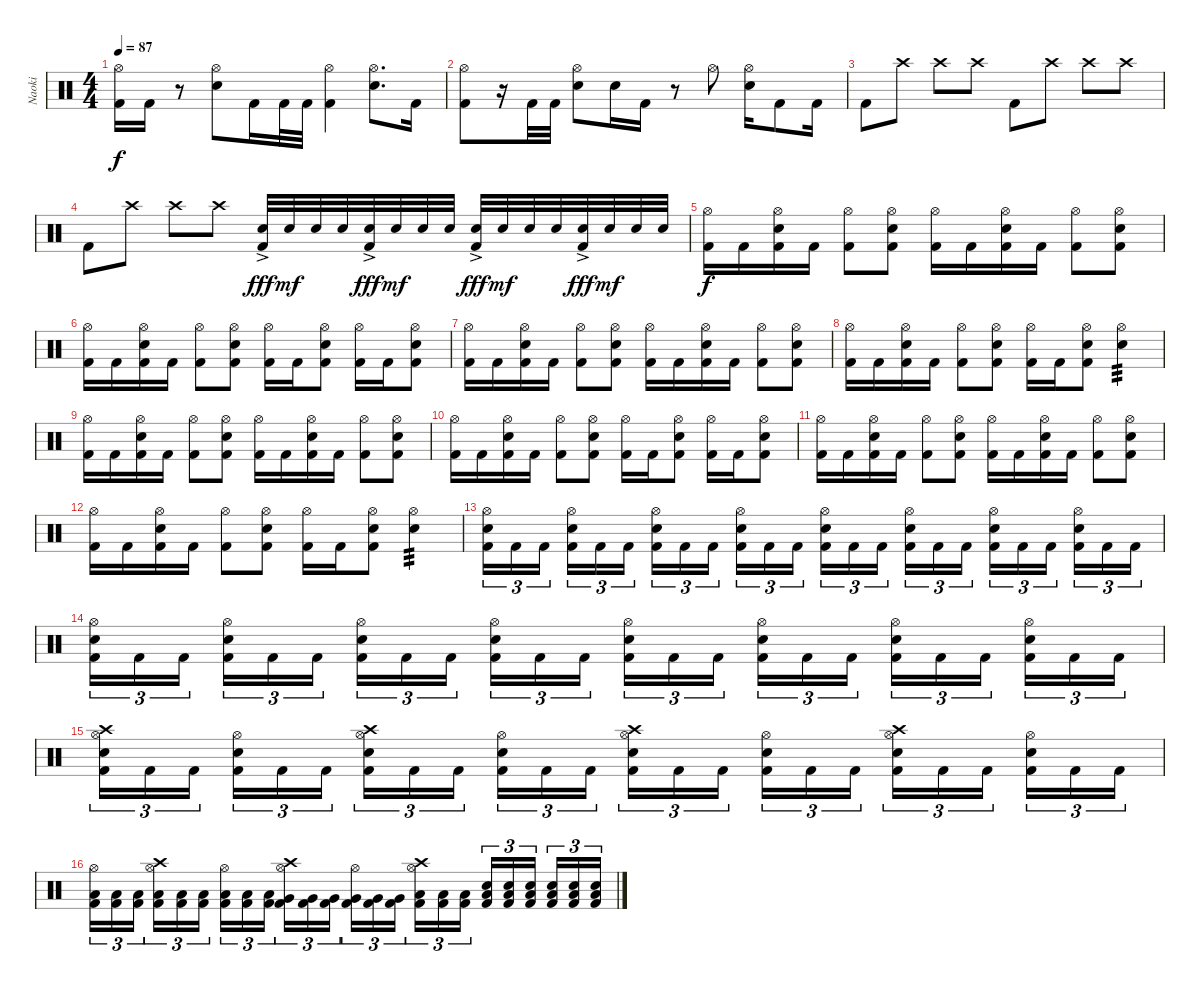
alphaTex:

\track ("Naoki" "Naoki") {instrument percussion}
\staff {score}
\articulation defaults
\ts (4 4)
\tempo 87
\clef neutral
\ks c
("Hi-Hat (open)" "Kick (hit) 2").16{dy f} "Kick (hit) 2".16 r.8 ("Hi-Hat (open)" "Electric Snare (hit)").8 "Kick (hit) 2".16 "Kick (hit) 2".32 "Kick (hit) 2".32 ("Hi-Hat (open)" "Kick (hit) 2").4 ("Hi-Hat (open)" "Electric Snare (hit)").8{d} "Kick (hit) 2".16 |
("Hi-Hat (open)" "Kick (hit) 2").8 r.16 "Kick (hit) 2".32 "Kick (hit) 2".32 ("Hi-Hat (open)" "Electric Snare (hit)").8 "Electric Snare (hit)".16 "Kick (hit) 2".16 r.8 "Hi-Hat (open)".8 ("Hi-Hat (open)" "Electric Snare (hit)").16 "Kick (hit) 2".8 "Kick (hit) 2".16 |
"Kick (hit) 2".8 "Crash high (hit)".8 "Crash high (hit)".8 "Crash high (hit)".8 "Kick (hit) 2".8 "Crash high (hit)".8 "Crash high (hit)".8 "Crash high (hit)".8 |
"Kick (hit) 2".8 "Crash high (hit)".8 "Crash high (hit)".8 "Crash high (hit)".8 ("Electric Snare (hit)"{ac} "Kick (hit) 2").32{dy fff} "Electric Snare (hit)".32{dy mf} "Electric Snare (hit)".32 "Electric Snare (hit)".32 ("Electric Snare (hit)"{ac} "Kick (hit) 2").32{dy fff} "Electric Snare (hit)".32{dy mf} "Electric Snare (hit)".32 "Electric Snare (hit)".32 ("Electric Snare (hit)"{ac} "Kick (hit) 2").32{dy fff} "Electric Snare (hit)".32{dy mf} "Electric Snare (hit)".32 "Electric Snare (hit)".32 ("Electric Snare (hit)"{ac} "Kick (hit) 2").32{dy fff} "Electric Snare (hit)".32{dy mf} "Electric Snare (hit)".32 "Electric Snare (hit)".32 |
("Hi-Hat (open)" "Kick (hit) 2").16{dy f} "Kick (hit) 2".16 ("Hi-Hat (open)" "Electric Snare (hit)" "Kick (hit) 2").16 "Kick (hit) 2".16 ("Hi-Hat (open)" "Kick (hit) 2").8 ("Hi-Hat (open)" "Electric Snare (hit)" "Kick (hit) 2").8 ("Hi-Hat (open)" "Kick (hit) 2").16 "Kick (hit) 2".16 ("Hi-Hat (open)" "Electric Snare (hit)" "Kick (hit) 2").16 "Kick (hit) 2".16 ("Hi-Hat (open)" "Kick (hit) 2").8 ("Hi-Hat (open)" "Electric Snare (hit)" "Kick (hit) 2").8 |
("Hi-Hat (open)" "Kick (hit) 2").16 "Kick (hit) 2".16 ("Hi-Hat (open)" "Electric Snare (hit)" "Kick (hit) 2").16 "Kick (hit) 2".16 ("Hi-Hat (open)" "Kick (hit) 2").8 ("Hi-Hat (open)" "Electric Snare (hit)" "Kick (hit) 2").8 ("Hi-Hat (open)" "Kick (hit) 2").16 "Kick (hit) 2".16 ("Hi-Hat (open)" "Electric Snare (hit)" "Kick (hit) 2").8 ("Hi-Hat (open)" "Kick (hit) 2").16 "Kick (hit) 2".16 ("Hi-Hat (open)" "Electric Snare (hit)" "Kick (hit) 2").8 |
("Hi-Hat (open)" "Kick (hit) 2").16 "Kick (hit) 2".16 ("Hi-Hat (open)" "Electric Snare (hit)" "Kick (hit) 2").16 "Kick (hit) 2".16 ("Hi-Hat (open)" "Kick (hit) 2").8 ("Hi-Hat (open)" "Electric Snare (hit)" "Kick (hit) 2").8 ("Hi-Hat (open)" "Kick (hit) 2").16 "Kick (hit) 2".16 ("Hi-Hat (open)" "Electric Snare (hit)" "Kick (hit) 2").16 "Kick (hit) 2".16 ("Hi-Hat (open)" "Kick (hit) 2").8 ("Hi-Hat (open)" "Electric Snare (hit)" "Kick (hit) 2").8 |
("Hi-Hat (open)" "Kick (hit) 2").16 "Kick (hit) 2".16 ("Hi-Hat (open)" "Electric Snare (hit)" "Kick (hit) 2").16 "Kick (hit) 2".16 ("Hi-Hat (open)" "Kick (hit) 2").8 ("Hi-Hat (open)" "Electric Snare (hit)" "Kick (hit) 2").8 ("Hi-Hat (open)" "Kick (hit) 2").16 "Kick (hit) 2".16 ("Hi-Hat (open)" "Electric Snare (hit)" "Kick (hit) 2").8 ("Hi-Hat (open)" "Electric Snare (hit)").4{tp 3} |
("Hi-Hat (open)" "Kick (hit) 2").16 "Kick (hit) 2".16 ("Hi-Hat (open)" "Electric Snare (hit)" "Kick (hit) 2").16 "Kick (hit) 2".16 ("Hi-Hat (open)" "Kick (hit) 2").8 ("Hi-Hat (open)" "Electric Snare (hit)" "Kick (hit) 2").8 ("Hi-Hat (open)" "Kick (hit) 2").16 "Kick (hit) 2".16 ("Hi-Hat (open)" "Electric Snare (hit)" "Kick (hit) 2").16 "Kick (hit) 2".16 ("Hi-Hat (open)" "Kick (hit) 2").8 ("Hi-Hat (open)" "Electric Snare (hit)" "Kick (hit) 2").8 |
("Hi-Hat (open)" "Kick (hit) 2").16 "Kick (hit) 2".16 ("Hi-Hat (open)" "Electric Snare (hit)" "Kick (hit) 2").16 "Kick (hit) 2".16 ("Hi-Hat (open)" "Kick (hit) 2").8 ("Hi-Hat (open)" "Electric Snare (hit)" "Kick (hit) 2").8 ("Hi-Hat (open)" "Kick (hit) 2").16 "Kick (hit) 2".16 ("Hi-Hat (open)" "Electric Snare (hit)" "Kick (hit) 2").8 ("Hi-Hat (open)" "Kick (hit) 2").16 "Kick (hit) 2".16 ("Hi-Hat (open)" "Electric Snare (hit)" "Kick (hit) 2").8 |
("Hi-Hat (open)" "Kick (hit) 2").16 "Kick (hit) 2".16 ("Hi-Hat (open)" "Electric Snare (hit)" "Kick (hit) 2").16 "Kick (hit) 2".16 ("Hi-Hat (open)" "Kick (hit) 2").8 ("Hi-Hat (open)" "Electric Snare (hit)" "Kick (hit) 2").8 ("Hi-Hat (open)" "Kick (hit) 2").16 "Kick (hit) 2".16 ("Hi-Hat (open)" "Electric Snare (hit)" "Kick (hit) 2").16 "Kick (hit) 2".16 ("Hi-Hat (open)" "Kick (hit) 2").8 ("Hi-Hat (open)" "Electric Snare (hit)" "Kick (hit) 2").8 |
("Hi-Hat (open)" "Kick (hit) 2").16 "Kick (hit) 2".16 ("Hi-Hat (open)" "Electric Snare (hit)" "Kick (hit) 2").16 "Kick (hit) 2".16 ("Hi-Hat (open)" "Kick (hit) 2").8 ("Hi-Hat (open)" "Electric Snare (hit)" "Kick (hit) 2").8 ("Hi-Hat (open)" "Kick (hit) 2").16 "Kick (hit) 2".16 ("Hi-Hat (open)" "Electric Snare (hit)" "Kick (hit) 2").8 ("Hi-Hat (open)" "Electric Snare (hit)").4{tp 3} |
("Hi-Hat (open)" "Electric Snare (hit)" "Kick (hit) 2").16{tu (3 2)} "Kick (hit) 2".16{tu (3 2)} "Kick (hit) 2".16{tu (3 2) beam splitsecondary} ("Hi-Hat (open)" "Electric Snare (hit)" "Kick (hit) 2").16{tu (3 2)} "Kick (hit) 2".16{tu (3 2)} "Kick (hit) 2".16{tu (3 2)} ("Hi-Hat (open)" "Electric Snare (hit)" "Kick (hit) 2").16{tu (3 2)} "Kick (hit) 2".16{tu (3 2)} "Kick (hit) 2".16{tu (3 2) beam splitsecondary} ("Hi-Hat (open)" "Electric Snare (hit)" "Kick (hit) 2").16{tu (3 2)} "Kick (hit) 2".16{tu (3 2)} "Kick (hit) 2".16{tu (3 2)} ("Hi-Hat (open)" "Electric Snare (hit)" "Kick (hit) 2").16{tu (3 2)} "Kick (hit) 2".16{tu (3 2)} "Kick (hit) 2".16{tu (3 2) beam splitsecondary} ("Hi-Hat (open)" "Electric Snare (hit)" "Kick (hit) 2").16{tu (3 2)} "Kick (hit) 2".16{tu (3 2)} "Kick (hit) 2".16{tu (3 2)} ("Hi-Hat (open)" "Electric Snare (hit)" "Kick (hit) 2").16{tu (3 2)} "Kick (hit) 2".16{tu (3 2)} "Kick (hit) 2".16{tu (3 2) beam splitsecondary} ("Hi-Hat (open)" "Electric Snare (hit)" "Kick (hit) 2").16{tu (3 2)} "Kick (hit) 2".16{tu (3 2)} "Kick (hit) 2".16{tu (3 2)} |
("Hi-Hat (open)" "Electric Snare (hit)" "Kick (hit) 2").16{tu (3 2)} "Kick (hit) 2".16{tu (3 2)} "Kick (hit) 2".16{tu (3 2) beam splitsecondary} ("Hi-Hat (open)" "Electric Snare (hit)" "Kick (hit) 2").16{tu (3 2)} "Kick (hit) 2".16{tu (3 2)} "Kick (hit) 2".16{tu (3 2)} ("Hi-Hat (open)" "Electric Snare (hit)" "Kick (hit) 2").16{tu (3 2)} "Kick (hit) 2".16{tu (3 2)} "Kick (hit) 2".16{tu (3 2) beam splitsecondary} ("Hi-Hat (open)" "Electric Snare (hit)" "Kick (hit) 2").16{tu (3 2)} "Kick (hit) 2".16{tu (3 2)} "Kick (hit) 2".16{tu (3 2)} ("Hi-Hat (open)" "Electric Snare (hit)" "Kick (hit) 2").16{tu (3 2)} "Kick (hit) 2".16{tu (3 2)} "Kick (hit) 2".16{tu (3 2) beam splitsecondary} ("Hi-Hat (open)" "Electric Snare (hit)" "Kick (hit) 2").16{tu (3 2)} "Kick (hit) 2".16{tu (3 2)} "Kick (hit) 2".16{tu (3 2)} ("Hi-Hat (open)" "Electric Snare (hit)" "Kick (hit) 2").16{tu (3 2)} "Kick (hit) 2".16{tu (3 2)} "Kick (hit) 2".16{tu (3 2) beam splitsecondary} ("Hi-Hat (open)" "Electric Snare (hit)" "Kick (hit) 2").16{tu (3 2)} "Kick (hit) 2".16{tu (3 2)} "Kick (hit) 2".16{tu (3 2)} |
("Crash high (hit)" "Hi-Hat (open)" "Electric Snare (hit)" "Kick (hit) 2").16{tu (3 2)} "Kick (hit) 2".16{tu (3 2)} "Kick (hit) 2".16{tu (3 2) beam splitsecondary} ("Hi-Hat (open)" "Electric Snare (hit)" "Kick (hit) 2").16{tu (3 2)} "Kick (hit) 2".16{tu (3 2)} "Kick (hit) 2".16{tu (3 2)} ("Crash high (hit)" "Hi-Hat (open)" "Electric Snare (hit)" "Kick (hit) 2").16{tu (3 2)} "Kick (hit) 2".16{tu (3 2)} "Kick (hit) 2".16{tu (3 2) beam splitsecondary} ("Hi-Hat (open)" "Electric Snare (hit)" "Kick (hit) 2").16{tu (3 2)} "Kick (hit) 2".16{tu (3 2)} "Kick (hit) 2".16{tu (3 2)} ("Crash high (hit)" "Hi-Hat (open)" "Electric Snare (hit)" "Kick (hit) 2").16{tu (3 2)} "Kick (hit) 2".16{tu (3 2)} "Kick (hit) 2".16{tu (3 2) beam splitsecondary} ("Hi-Hat (open)" "Electric Snare (hit)" "Kick (hit) 2").16{tu (3 2)} "Kick (hit) 2".16{tu (3 2)} "Kick (hit) 2".16{tu (3 2)} ("Crash high (hit)" "Hi-Hat (open)" "Electric Snare (hit)" "Kick (hit) 2").16{tu (3 2)} "Kick (hit) 2".16{tu (3 2)} "Kick (hit) 2".16{tu (3 2) beam splitsecondary} ("Hi-Hat (open)" "Electric Snare (hit)" "Kick (hit) 2").16{tu (3 2)} "Kick (hit) 2".16{tu (3 2)} "Kick (hit) 2".16{tu (3 2)} |
("Hi-Hat (open)" "Low Tom (hit)" "Kick (hit) 2").16{tu (3 2)} ("Low Tom (hit)" "Kick (hit) 2").16{tu (3 2)} ("Low Tom (hit)" "Kick (hit) 2").16{tu (3 2) beam splitsecondary} ("Crash high (hit)" "Hi-Hat (open)" "Low Tom (hit)" "Kick (hit) 2").16{tu (3 2)} ("Low Tom (hit)" "Kick (hit) 2").16{tu (3 2)} ("Low Tom (hit)" "Kick (hit) 2").16{tu (3 2)} ("Hi-Hat (open)" "Low Tom (hit)" "Kick (hit) 2").16{tu (3 2)} ("Low Tom (hit)" "Kick (hit) 2").16{tu (3 2)} ("Low Tom (hit)" "Kick (hit) 2").16{tu (3 2) beam splitsecondary} ("Crash high (hit)" "Hi-Hat (open)" "Very Low Tom (hit)" "Kick (hit) 2").16{tu (3 2)} ("Very Low Tom (hit)" "Kick (hit) 2").16{tu (3 2)} ("Very Low Tom (hit)" "Kick (hit) 2").16{tu (3 2)} ("Hi-Hat (open)" "Very Low Tom (hit)" "Kick (hit) 2").16{tu (3 2)} ("Very Low Tom (hit)" "Kick (hit) 2").16{tu (3 2)} ("Very Low Tom (hit)" "Kick (hit) 2").16{tu (3 2) beam splitsecondary} ("Crash high (hit)" "Hi-Hat (open)" "Low Floor Tom (hit)" "Kick (hit) 2").16{tu (3 2)} ("Low Floor Tom (hit)" "Kick (hit) 2").16{tu (3 2)} ("Low Floor Tom (hit)" "Kick (hit) 2").16{tu (3 2)} ("Electric Snare (hit)" "Low Floor Tom (hit)" "Kick (hit) 2").16{tu (3 2)} ("Electric Snare (hit)" "Low Floor Tom (hit)" "Kick (hit) 2").16{tu (3 2)} ("Electric Snare (hit)" "Low Floor Tom (hit)" "Kick (hit) 2").16{tu (3 2) beam splitsecondary} ("Electric Snare (hit)" "Low Floor Tom (hit)" "Kick (hit) 2").16{tu (3 2)} ("Electric Snare (hit)" "Low Floor Tom (hit)" "Kick (hit) 2").16{tu (3 2)} ("Electric Snare (hit)" "Low Floor Tom (hit)" "Kick (hit) 2").16{tu (3 2)}
